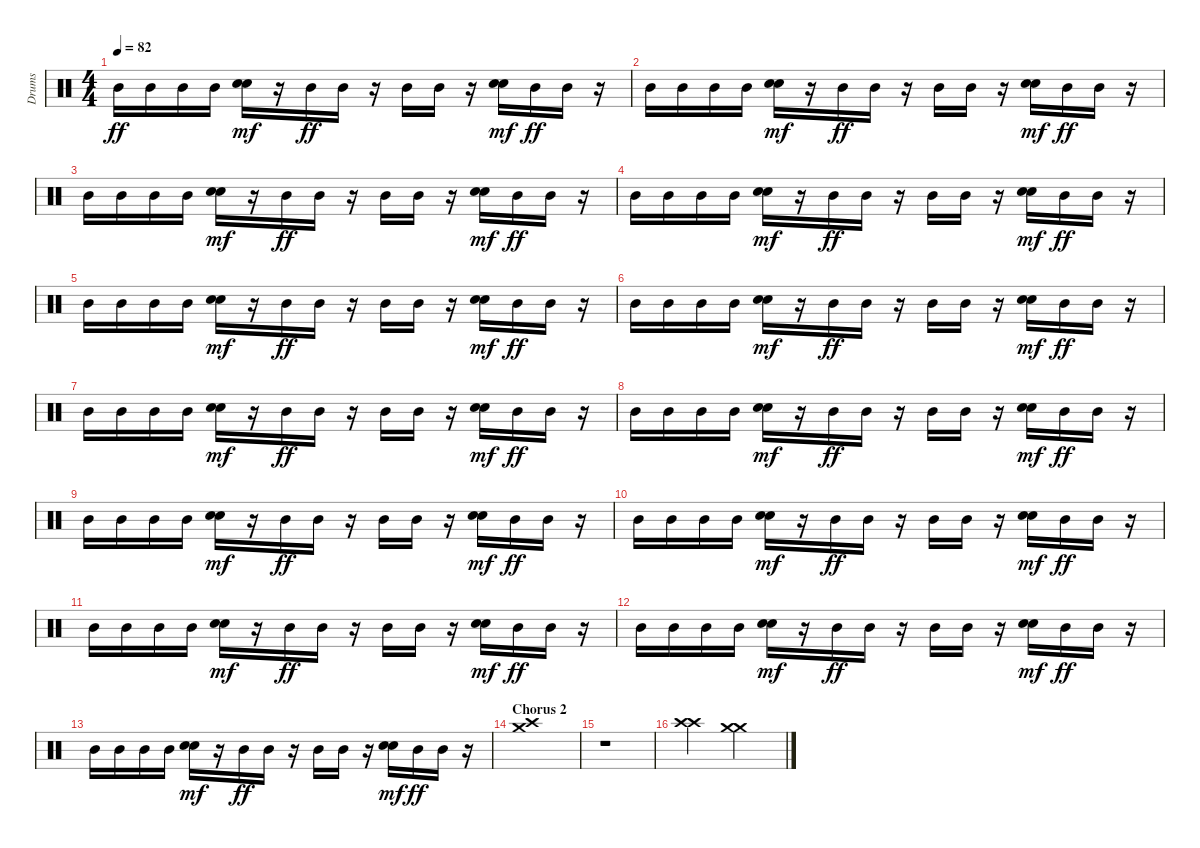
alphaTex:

\track ("Drums" "Drums") {instrument percussion}
\staff {score}
\articulation defaults
\ts (4 4)
\tempo 82
\clef neutral
\ks c "Mid Tom (hit)".16{dy ff} "Mid Tom (hit)".16 "Mid Tom (hit)".16 "Mid Tom (hit)".16
("Electric Snare (hit)" "Electric Snare (hit)").16{bd 480 dy mf} r.16 "Mid Tom (hit)".16{dy ff} "Mid Tom (hit)".16 r.16 "Mid Tom (hit)".16 "Mid Tom (hit)".16 r.16 ("Electric Snare (hit)" "Electric Snare (hit)").16{bd 240 dy mf} "Mid Tom (hit)".16{dy ff} "Mid Tom (hit)".16 r.16 |
"Mid Tom (hit)".16 "Mid Tom (hit)".16 "Mid Tom (hit)".16 "Mid Tom (hit)".16 ("Electric Snare (hit)" "Electric Snare (hit)").16{bd 480 dy mf} r.16 "Mid Tom (hit)".16{dy ff} "Mid Tom (hit)".16 r.16 "Mid Tom (hit)".16 "Mid Tom (hit)".16 r.16 ("Electric Snare (hit)" "Electric Snare (hit)").16{bd 240 dy mf} "Mid Tom (hit)".16{dy ff} "Mid Tom (hit)".16 r.16 |
"Mid Tom (hit)".16 "Mid Tom (hit)".16 "Mid Tom (hit)".16 "Mid Tom (hit)".16 ("Electric Snare (hit)" "Electric Snare (hit)").16{bd 480 dy mf} r.16 "Mid Tom (hit)".16{dy ff} "Mid Tom (hit)".16 r.16 "Mid Tom (hit)".16 "Mid Tom (hit)".16 r.16 ("Electric Snare (hit)" "Electric Snare (hit)").16{bd 240 dy mf} "Mid Tom (hit)".16{dy ff} "Mid Tom (hit)".16 r.16 |
"Mid Tom (hit)".16 "Mid Tom (hit)".16 "Mid Tom (hit)".16 "Mid Tom (hit)".16 ("Electric Snare (hit)" "Electric Snare (hit)").16{bd 480 dy mf} r.16 "Mid Tom (hit)".16{dy ff} "Mid Tom (hit)".16 r.16 "Mid Tom (hit)".16 "Mid Tom (hit)".16 r.16 ("Electric Snare (hit)" "Electric Snare (hit)").16{bd 240 dy mf} "Mid Tom (hit)".16{dy ff} "Mid Tom (hit)".16 r.16 |
"Mid Tom (hit)".16 "Mid Tom (hit)".16 "Mid Tom (hit)".16 "Mid Tom (hit)".16 ("Electric Snare (hit)" "Electric Snare (hit)").16{bd 480 dy mf} r.16 "Mid Tom (hit)".16{dy ff} "Mid Tom (hit)".16 r.16 "Mid Tom (hit)".16 "Mid Tom (hit)".16 r.16 ("Electric Snare (hit)" "Electric Snare (hit)").16{bd 240 dy mf} "Mid Tom (hit)".16{dy ff} "Mid Tom (hit)".16 r.16 |
"Mid Tom (hit)".16 "Mid Tom (hit)".16 "Mid Tom (hit)".16 "Mid Tom (hit)".16 ("Electric Snare (hit)" "Electric Snare (hit)").16{bd 480 dy mf} r.16 "Mid Tom (hit)".16{dy ff} "Mid Tom (hit)".16 r.16 "Mid Tom (hit)".16 "Mid Tom (hit)".16 r.16 ("Electric Snare (hit)" "Electric Snare (hit)").16{bd 240 dy mf} "Mid Tom (hit)".16{dy ff} "Mid Tom (hit)".16 r.16 |
"Mid Tom (hit)".16 "Mid Tom (hit)".16 "Mid Tom (hit)".16 "Mid Tom (hit)".16 ("Electric Snare (hit)" "Electric Snare (hit)").16{bd 480 dy mf} r.16 "Mid Tom (hit)".16{dy ff} "Mid Tom (hit)".16 r.16 "Mid Tom (hit)".16 "Mid Tom (hit)".16 r.16 ("Electric Snare (hit)" "Electric Snare (hit)").16{bd 240 dy mf} "Mid Tom (hit)".16{dy ff} "Mid Tom (hit)".16 r.16 |
"Mid Tom (hit)".16 "Mid Tom (hit)".16 "Mid Tom (hit)".16 "Mid Tom (hit)".16 ("Electric Snare (hit)" "Electric Snare (hit)").16{bd 480 dy mf} r.16 "Mid Tom (hit)".16{dy ff} "Mid Tom (hit)".16 r.16 "Mid Tom (hit)".16 "Mid Tom (hit)".16 r.16 ("Electric Snare (hit)" "Electric Snare (hit)").16{bd 240 dy mf} "Mid Tom (hit)".16{dy ff} "Mid Tom (hit)".16 r.16 |
"Mid Tom (hit)".16 "Mid Tom (hit)".16 "Mid Tom (hit)".16 "Mid Tom (hit)".16 ("Electric Snare (hit)" "Electric Snare (hit)").16{bd 480 dy mf} r.16 "Mid Tom (hit)".16{dy ff} "Mid Tom (hit)".16 r.16 "Mid Tom (hit)".16 "Mid Tom (hit)".16 r.16 ("Electric Snare (hit)" "Electric Snare (hit)").16{bd 240 dy mf} "Mid Tom (hit)".16{dy ff} "Mid Tom (hit)".16 r.16 |
"Mid Tom (hit)".16 "Mid Tom (hit)".16 "Mid Tom (hit)".16 "Mid Tom (hit)".16 ("Electric Snare (hit)" "Electric Snare (hit)").16{bd 480 dy mf} r.16 "Mid Tom (hit)".16{dy ff} "Mid Tom (hit)".16 r.16 "Mid Tom (hit)".16 "Mid Tom (hit)".16 r.16 ("Electric Snare (hit)" "Electric Snare (hit)").16{bd 240 dy mf} "Mid Tom (hit)".16{dy ff} "Mid Tom (hit)".16 r.16 |
"Mid Tom (hit)".16 "Mid Tom (hit)".16 "Mid Tom (hit)".16 "Mid Tom (hit)".16 ("Electric Snare (hit)" "Electric Snare (hit)").16{bd 480 dy mf} r.16 "Mid Tom (hit)".16{dy ff} "Mid Tom (hit)".16 r.16 "Mid Tom (hit)".16 "Mid Tom (hit)".16 r.16 ("Electric Snare (hit)" "Electric Snare (hit)").16{bd 240 dy mf} "Mid Tom (hit)".16{dy ff} "Mid Tom (hit)".16 r.16 |
"Mid Tom (hit)".16 "Mid Tom (hit)".16 "Mid Tom (hit)".16 "Mid Tom (hit)".16 ("Electric Snare (hit)" "Electric Snare (hit)").16{bd 480 dy mf} r.16 "Mid Tom (hit)".16{dy ff} "Mid Tom (hit)".16 r.16 "Mid Tom (hit)".16 "Mid Tom (hit)".16 r.16 ("Electric Snare (hit)" "Electric Snare (hit)").16{bd 240 dy mf} "Mid Tom (hit)".16{dy ff} "Mid Tom (hit)".16 r.16 |
"Mid Tom (hit)".16 "Mid Tom (hit)".16 "Mid Tom (hit)".16 "Mid Tom (hit)".16 ("Electric Snare (hit)" "Electric Snare (hit)").16{bd 480 dy mf} r.16 "Mid Tom (hit)".16{dy ff} "Mid Tom (hit)".16 r.16 "Mid Tom (hit)".16 "Mid Tom (hit)".16 r.16 ("Electric Snare (hit)" "Electric Snare (hit)").16{bd 240 dy mf} "Mid Tom (hit)".16{dy ff} "Mid Tom (hit)".16 r.16 |
\section ("" "Chorus 2")
("Crash medium (hit)" "Crash high (hit)").1 |
r.1 |
("Crash high (hit)" "Crash high (hit)").2 ("Crash medium (hit)" "Crash medium (hit)").2
